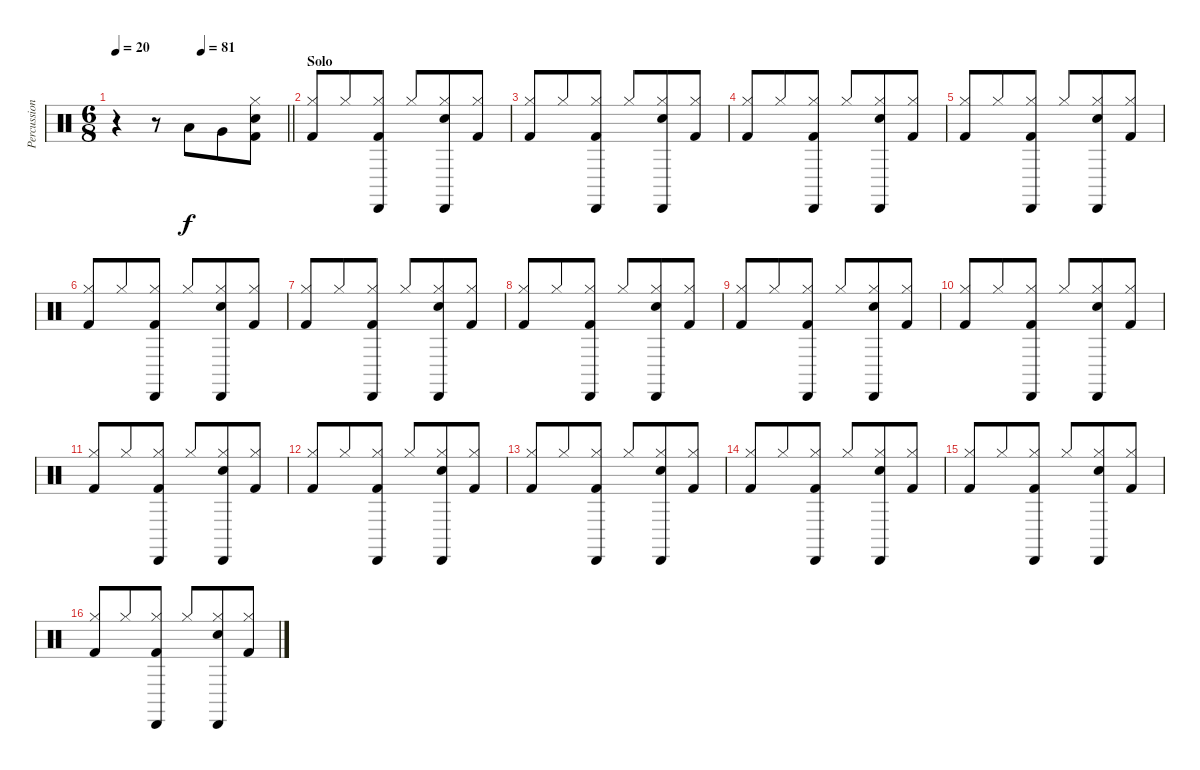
\track ("Percussion" "Percussion") {instrument percussion}
\staff {score}
\articulation defaults
\ts (6 8)
\tempo 20
\tempo (81 0.5)
\clef neutral
\barLineRight lightlight
\ks c
r.4{dy f} r.8 "Low Tom (hit)".8 "Very Low Tom (hit)".8 ("Hi-Hat (closed)" "Kick (hit) 2" "Snare (hit) 2").8 |
\section ("" "Solo")
("Hi-Hat (closed)" "Kick (hit) 2").8 "Hi-Hat (closed)".8 ("Hi-Hat (closed)" "Kick (hit) 2" "Cabasa (hit)").8 "Hi-Hat (closed)".8 ("Hi-Hat (closed)" "Snare (hit) 2" "Cabasa (hit)").8 ("Hi-Hat (closed)" "Kick (hit) 2").8 |
("Hi-Hat (closed)" "Kick (hit) 2").8 "Hi-Hat (closed)".8 ("Hi-Hat (closed)" "Kick (hit) 2" "Cabasa (hit)").8 "Hi-Hat (closed)".8 ("Hi-Hat (closed)" "Snare (hit) 2" "Cabasa (hit)").8 ("Hi-Hat (closed)" "Kick (hit) 2").8 |
("Hi-Hat (closed)" "Kick (hit) 2").8 "Hi-Hat (closed)".8 ("Hi-Hat (closed)" "Kick (hit) 2" "Cabasa (hit)").8 "Hi-Hat (closed)".8 ("Hi-Hat (closed)" "Snare (hit) 2" "Cabasa (hit)").8 ("Hi-Hat (closed)" "Kick (hit) 2").8 |
("Hi-Hat (closed)" "Kick (hit) 2").8 "Hi-Hat (closed)".8 ("Hi-Hat (closed)" "Kick (hit) 2" "Cabasa (hit)").8 "Hi-Hat (closed)".8 ("Hi-Hat (closed)" "Snare (hit) 2" "Cabasa (hit)").8 ("Hi-Hat (closed)" "Kick (hit) 2").8 |
("Hi-Hat (closed)" "Kick (hit) 2").8 "Hi-Hat (closed)".8 ("Hi-Hat (closed)" "Kick (hit) 2" "Cabasa (hit)").8 "Hi-Hat (closed)".8 ("Hi-Hat (closed)" "Snare (hit) 2" "Cabasa (hit)").8 ("Hi-Hat (closed)" "Kick (hit) 2").8 |
("Hi-Hat (closed)" "Kick (hit) 2").8 "Hi-Hat (closed)".8 ("Hi-Hat (closed)" "Kick (hit) 2" "Cabasa (hit)").8 "Hi-Hat (closed)".8 ("Hi-Hat (closed)" "Snare (hit) 2" "Cabasa (hit)").8 ("Hi-Hat (closed)" "Kick (hit) 2").8 |
("Hi-Hat (closed)" "Kick (hit) 2").8 "Hi-Hat (closed)".8 ("Hi-Hat (closed)" "Kick (hit) 2" "Cabasa (hit)").8 "Hi-Hat (closed)".8 ("Hi-Hat (closed)" "Snare (hit) 2" "Cabasa (hit)").8 ("Hi-Hat (closed)" "Kick (hit) 2").8 |
("Hi-Hat (closed)" "Kick (hit) 2").8 "Hi-Hat (closed)".8 ("Hi-Hat (closed)" "Kick (hit) 2" "Cabasa (hit)").8 "Hi-Hat (closed)".8 ("Hi-Hat (closed)" "Snare (hit) 2" "Cabasa (hit)").8 ("Hi-Hat (closed)" "Kick (hit) 2").8 |
("Hi-Hat (closed)" "Kick (hit) 2").8 "Hi-Hat (closed)".8 ("Hi-Hat (closed)" "Kick (hit) 2" "Cabasa (hit)").8 "Hi-Hat (closed)".8 ("Hi-Hat (closed)" "Snare (hit) 2" "Cabasa (hit)").8 ("Hi-Hat (closed)" "Kick (hit) 2").8 |
("Hi-Hat (closed)" "Kick (hit) 2").8 "Hi-Hat (closed)".8 ("Hi-Hat (closed)" "Kick (hit) 2" "Cabasa (hit)").8 "Hi-Hat (closed)".8 ("Hi-Hat (closed)" "Snare (hit) 2" "Cabasa (hit)").8 ("Hi-Hat (closed)" "Kick (hit) 2").8 |
("Hi-Hat (closed)" "Kick (hit) 2").8 "Hi-Hat (closed)".8 ("Hi-Hat (closed)" "Kick (hit) 2" "Cabasa (hit)").8 "Hi-Hat (closed)".8 ("Hi-Hat (closed)" "Snare (hit) 2" "Cabasa (hit)").8 ("Hi-Hat (closed)" "Kick (hit) 2").8 |
("Hi-Hat (closed)" "Kick (hit) 2").8 "Hi-Hat (closed)".8 ("Hi-Hat (closed)" "Kick (hit) 2" "Cabasa (hit)").8 "Hi-Hat (closed)".8 ("Hi-Hat (closed)" "Snare (hit) 2" "Cabasa (hit)").8 ("Hi-Hat (closed)" "Kick (hit) 2").8 |
("Hi-Hat (closed)" "Kick (hit) 2").8 "Hi-Hat (closed)".8 ("Hi-Hat (closed)" "Kick (hit) 2" "Cabasa (hit)").8 "Hi-Hat (closed)".8 ("Hi-Hat (closed)" "Snare (hit) 2" "Cabasa (hit)").8 ("Hi-Hat (closed)" "Kick (hit) 2").8 |
("Hi-Hat (closed)" "Kick (hit) 2").8 "Hi-Hat (closed)".8 ("Hi-Hat (closed)" "Kick (hit) 2" "Cabasa (hit)").8 "Hi-Hat (closed)".8 ("Hi-Hat (closed)" "Snare (hit) 2" "Cabasa (hit)").8 ("Hi-Hat (closed)" "Kick (hit) 2").8 |
("Hi-Hat (closed)" "Kick (hit) 2").8 "Hi-Hat (closed)".8 ("Hi-Hat (closed)" "Kick (hit) 2" "Cabasa (hit)").8 "Hi-Hat (closed)".8 ("Hi-Hat (closed)" "Snare (hit) 2" "Cabasa (hit)").8 ("Hi-Hat (closed)" "Kick (hit) 2").8
